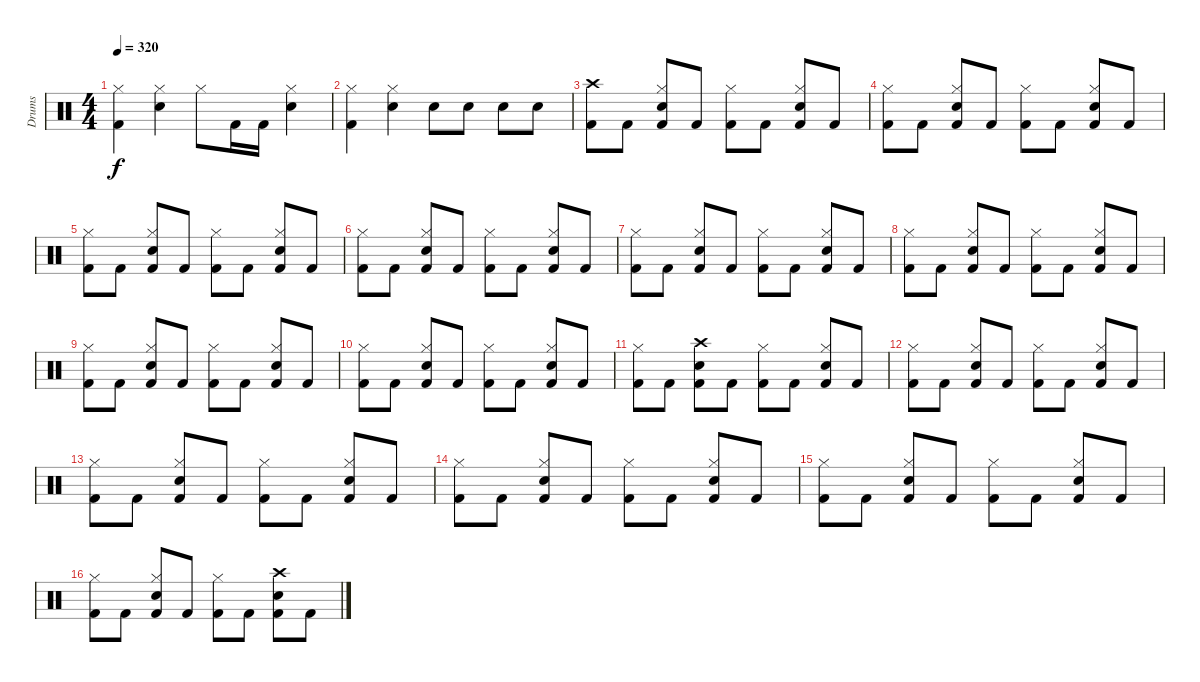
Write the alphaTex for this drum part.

\track ("Drums" "Drums") {instrument percussion}
\staff {score}
\articulation defaults
\ts (4 4)
\tempo 320
\clef neutral
\ks c
("Kick (hit) 2" "Hi-Hat (closed)").4{dy f} ("Snare (hit) 2" "Hi-Hat (closed)").4 "Hi-Hat (closed)".8 "Kick (hit) 2".16 "Kick (hit) 2".16 ("Snare (hit) 2" "Hi-Hat (closed)").4 |
("Kick (hit) 2" "Hi-Hat (closed)").4 ("Snare (hit) 2" "Hi-Hat (closed)").4 "Snare (hit) 2".8 "Snare (hit) 2".8 "Snare (hit) 2".8 "Snare (hit) 2".8 |
("Kick (hit) 2" "Crash high (hit)").8 "Kick (hit) 2".8 ("Snare (hit) 2" "Hi-Hat (closed)" "Kick (hit) 2").8 "Kick (hit) 2".8 ("Hi-Hat (closed)" "Kick (hit) 2").8 "Kick (hit) 2".8 ("Hi-Hat (closed)" "Snare (hit) 2" "Kick (hit) 2").8 "Kick (hit) 2".8 |
("Kick (hit) 2" "Hi-Hat (closed)").8 "Kick (hit) 2".8 ("Snare (hit) 2" "Hi-Hat (closed)" "Kick (hit) 2").8 "Kick (hit) 2".8 ("Hi-Hat (closed)" "Kick (hit) 2").8 "Kick (hit) 2".8 ("Kick (hit) 2" "Snare (hit) 2" "Hi-Hat (closed)").8 "Kick (hit) 2".8 |
("Kick (hit) 2" "Hi-Hat (closed)").8 "Kick (hit) 2".8 ("Hi-Hat (closed)" "Kick (hit) 2" "Snare (hit) 2").8 "Kick (hit) 2".8 ("Hi-Hat (closed)" "Kick (hit) 2").8 "Kick (hit) 2".8 ("Kick (hit) 2" "Hi-Hat (closed)" "Snare (hit) 2").8 "Kick (hit) 2".8 |
("Kick (hit) 2" "Hi-Hat (closed)").8 "Kick (hit) 2".8 ("Snare (hit) 2" "Kick (hit) 2" "Hi-Hat (closed)").8 "Kick (hit) 2".8 ("Hi-Hat (closed)" "Kick (hit) 2").8 "Kick (hit) 2".8 ("Kick (hit) 2" "Snare (hit) 2" "Hi-Hat (closed)").8 "Kick (hit) 2".8 |
("Kick (hit) 2" "Hi-Hat (closed)").8 "Kick (hit) 2".8 ("Hi-Hat (closed)" "Kick (hit) 2" "Snare (hit) 2").8 "Kick (hit) 2".8 ("Hi-Hat (closed)" "Kick (hit) 2").8 "Kick (hit) 2".8 ("Hi-Hat (closed)" "Kick (hit) 2" "Snare (hit) 2").8 "Kick (hit) 2".8 |
("Kick (hit) 2" "Hi-Hat (closed)").8 "Kick (hit) 2".8 ("Hi-Hat (closed)" "Kick (hit) 2" "Snare (hit) 2").8 "Kick (hit) 2".8 ("Hi-Hat (closed)" "Kick (hit) 2").8 "Kick (hit) 2".8 ("Snare (hit) 2" "Hi-Hat (closed)" "Kick (hit) 2").8 "Kick (hit) 2".8 |
("Kick (hit) 2" "Hi-Hat (closed)").8 "Kick (hit) 2".8 ("Snare (hit) 2" "Hi-Hat (closed)" "Kick (hit) 2").8 "Kick (hit) 2".8 ("Kick (hit) 2" "Hi-Hat (closed)").8 "Kick (hit) 2".8 ("Kick (hit) 2" "Hi-Hat (closed)" "Snare (hit) 2").8 "Kick (hit) 2".8 |
("Kick (hit) 2" "Hi-Hat (closed)").8 "Kick (hit) 2".8 ("Snare (hit) 2" "Kick (hit) 2" "Hi-Hat (closed)").8 "Kick (hit) 2".8 ("Hi-Hat (closed)" "Kick (hit) 2").8 "Kick (hit) 2".8 ("Hi-Hat (closed)" "Snare (hit) 2" "Kick (hit) 2").8 "Kick (hit) 2".8 |
("Kick (hit) 2" "Hi-Hat (closed)").8 "Kick (hit) 2".8 ("Snare (hit) 2" "Crash high (hit)" "Kick (hit) 2").8 "Kick (hit) 2".8 ("Hi-Hat (closed)" "Kick (hit) 2").8 "Kick (hit) 2".8 ("Snare (hit) 2" "Kick (hit) 2" "Hi-Hat (closed)").8 "Kick (hit) 2".8 |
("Hi-Hat (closed)" "Kick (hit) 2").8 "Kick (hit) 2".8 ("Snare (hit) 2" "Hi-Hat (closed)" "Kick (hit) 2").8 "Kick (hit) 2".8 ("Kick (hit) 2" "Hi-Hat (closed)").8 "Kick (hit) 2".8 ("Kick (hit) 2" "Snare (hit) 2" "Hi-Hat (closed)").8 "Kick (hit) 2".8 |
("Kick (hit) 2" "Hi-Hat (closed)").8 "Kick (hit) 2".8 ("Hi-Hat (closed)" "Snare (hit) 2" "Kick (hit) 2").8 "Kick (hit) 2".8 ("Hi-Hat (closed)" "Kick (hit) 2").8 "Kick (hit) 2".8 ("Kick (hit) 2" "Hi-Hat (closed)" "Snare (hit) 2").8 "Kick (hit) 2".8 |
("Kick (hit) 2" "Hi-Hat (closed)").8 "Kick (hit) 2".8 ("Hi-Hat (closed)" "Snare (hit) 2" "Kick (hit) 2").8 "Kick (hit) 2".8 ("Hi-Hat (closed)" "Kick (hit) 2").8 "Kick (hit) 2".8 ("Kick (hit) 2" "Snare (hit) 2" "Hi-Hat (closed)").8 "Kick (hit) 2".8 |
("Kick (hit) 2" "Hi-Hat (closed)").8 "Kick (hit) 2".8 ("Snare (hit) 2" "Kick (hit) 2" "Hi-Hat (closed)").8 "Kick (hit) 2".8 ("Hi-Hat (closed)" "Kick (hit) 2").8 "Kick (hit) 2".8 ("Hi-Hat (closed)" "Kick (hit) 2" "Snare (hit) 2").8 "Kick (hit) 2".8 |
("Kick (hit) 2" "Hi-Hat (closed)").8 "Kick (hit) 2".8 ("Snare (hit) 2" "Kick (hit) 2" "Hi-Hat (closed)").8 "Kick (hit) 2".8 ("Hi-Hat (closed)" "Kick (hit) 2").8 "Kick (hit) 2".8 ("Snare (hit) 2" "Crash high (hit)" "Kick (hit) 2").8 "Kick (hit) 2".8
